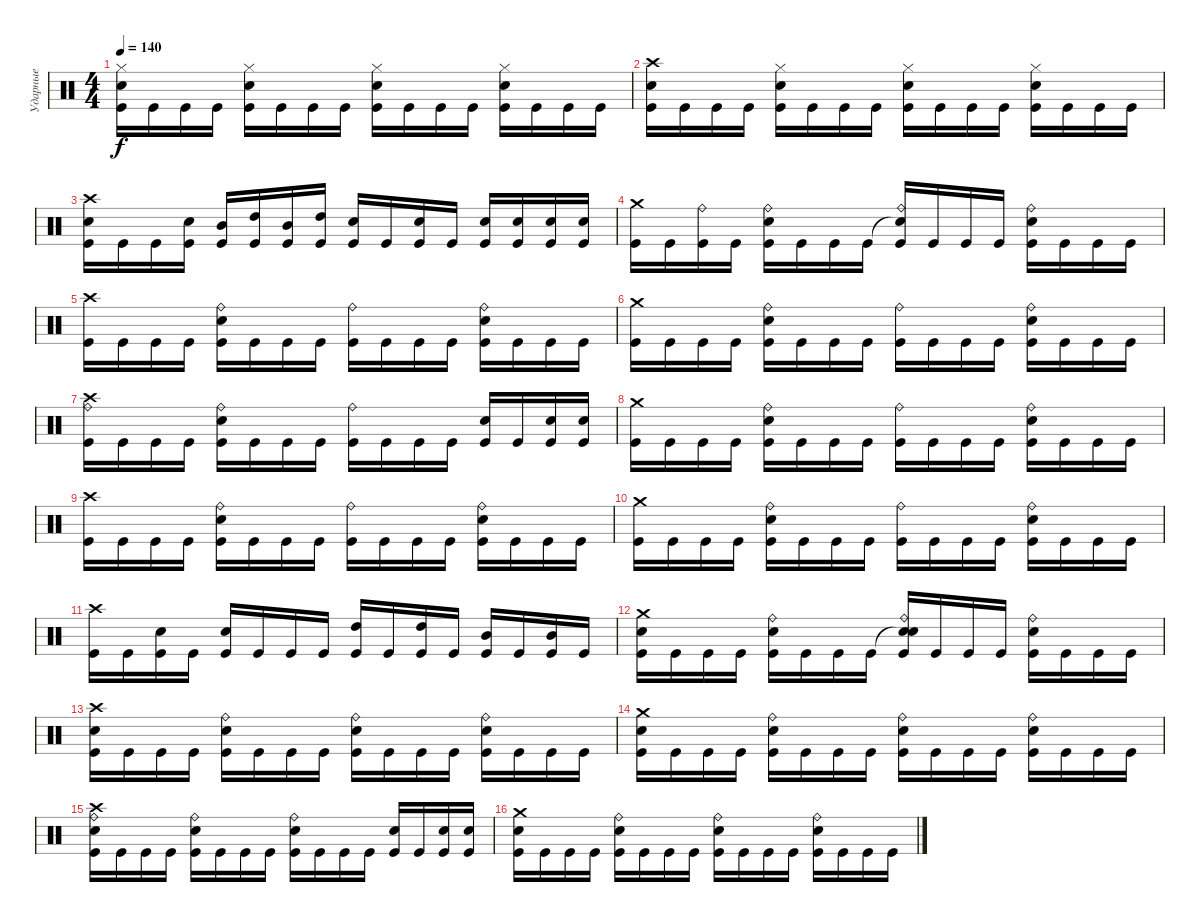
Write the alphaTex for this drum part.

\track ("Ударные" "Ударные") {instrument percussion}
\staff {score}
\articulation defaults
\ts (4 4)
\tempo 140
\clef neutral
\ks c
("Hi-Hat (closed)" "Electric Snare (hit)" "Kick (hit)").16{dy f} "Kick (hit)".16 "Kick (hit)".16 "Kick (hit)".16 ("Hi-Hat (closed)" "Electric Snare (hit)" "Kick (hit)").16 "Kick (hit)".16 "Kick (hit)".16 "Kick (hit)".16 ("Hi-Hat (closed)" "Electric Snare (hit)" "Kick (hit)").16 "Kick (hit)".16 "Kick (hit)".16 "Kick (hit)".16 ("Hi-Hat (closed)" "Electric Snare (hit)" "Kick (hit)").16 "Kick (hit)".16 "Kick (hit)".16 "Kick (hit)".16 |
("Crash high (hit)" "Electric Snare (hit)" "Kick (hit)").16 "Kick (hit)".16 "Kick (hit)".16 "Kick (hit)".16 ("Hi-Hat (closed)" "Electric Snare (hit)" "Kick (hit)").16 "Kick (hit)".16 "Kick (hit)".16 "Kick (hit)".16 ("Hi-Hat (closed)" "Electric Snare (hit)" "Kick (hit)").16 "Kick (hit)".16 "Kick (hit)".16 "Kick (hit)".16 ("Hi-Hat (closed)" "Electric Snare (hit)" "Kick (hit)").16 "Kick (hit)".16 "Kick (hit)".16 "Kick (hit)".16 |
("Crash high (hit)" "Electric Snare (hit)" "Kick (hit)").16 "Kick (hit)".16 "Kick (hit)".16 ("Electric Snare (hit)" "Kick (hit)").16 ("Mid Tom (hit)" "Kick (hit)").16 ("High Tom (hit)" "Kick (hit)").16 ("Mid Tom (hit)" "Kick (hit)").16 ("High Tom (hit)" "Kick (hit)").16 ("Electric Snare (hit)" "Kick (hit)").16 "Kick (hit)".16 ("Electric Snare (hit)" "Kick (hit)").16 "Kick (hit)".16 ("Electric Snare (hit)" "Kick (hit)").16 ("Electric Snare (hit)" "Kick (hit)").16 ("Electric Snare (hit)" "Kick (hit)").16 ("Electric Snare (hit)" "Kick (hit)").16 |
("Crash medium (hit)" "Kick (hit)").16 "Kick (hit)".16 ("Ride (bell)" "Kick (hit)").16 "Kick (hit)".16 ("Ride (bell)" "Electric Snare (hit)" "Kick (hit)").16 "Kick (hit)".16 "Kick (hit)".16 "Kick (hit)".16 ("Snare (hit)"{t} "Ride (bell)" "Kick (hit)").16 "Kick (hit)".16 "Kick (hit)".16 "Kick (hit)".16 ("Ride (bell)" "Electric Snare (hit)" "Kick (hit)").16 "Kick (hit)".16 "Kick (hit)".16 "Kick (hit)".16 |
("Crash high (hit)" "Kick (hit)").16 "Kick (hit)".16 "Kick (hit)".16 "Kick (hit)".16 ("Ride (bell)" "Electric Snare (hit)" "Kick (hit)").16 "Kick (hit)".16 "Kick (hit)".16 "Kick (hit)".16 ("Ride (bell)" "Kick (hit)").16 "Kick (hit)".16 "Kick (hit)".16 "Kick (hit)".16 ("Ride (bell)" "Electric Snare (hit)" "Kick (hit)").16 "Kick (hit)".16 "Kick (hit)".16 "Kick (hit)".16 |
("Crash medium (hit)" "Kick (hit)").16 "Kick (hit)".16 "Kick (hit)".16 "Kick (hit)".16 ("Ride (bell)" "Electric Snare (hit)" "Kick (hit)").16 "Kick (hit)".16 "Kick (hit)".16 "Kick (hit)".16 ("Ride (bell)" "Kick (hit)").16 "Kick (hit)".16 "Kick (hit)".16 "Kick (hit)".16 ("Ride (bell)" "Electric Snare (hit)" "Kick (hit)").16 "Kick (hit)".16 "Kick (hit)".16 "Kick (hit)".16 |
("Crash high (hit)" "Ride (bell)" "Kick (hit)").16 "Kick (hit)".16 "Kick (hit)".16 "Kick (hit)".16 ("Ride (bell)" "Electric Snare (hit)" "Kick (hit)").16 "Kick (hit)".16 "Kick (hit)".16 "Kick (hit)".16 ("Ride (bell)" "Kick (hit)").16 "Kick (hit)".16 "Kick (hit)".16 "Kick (hit)".16 ("Electric Snare (hit)" "Kick (hit)").16 "Kick (hit)".16 ("Electric Snare (hit)" "Kick (hit)").16 ("Electric Snare (hit)" "Kick (hit)").16 |
("Crash medium (hit)" "Kick (hit)").16 "Kick (hit)".16 "Kick (hit)".16 "Kick (hit)".16 ("Ride (bell)" "Electric Snare (hit)" "Kick (hit)").16 "Kick (hit)".16 "Kick (hit)".16 "Kick (hit)".16 ("Ride (bell)" "Kick (hit)").16 "Kick (hit)".16 "Kick (hit)".16 "Kick (hit)".16 ("Ride (bell)" "Electric Snare (hit)" "Kick (hit)").16 "Kick (hit)".16 "Kick (hit)".16 "Kick (hit)".16 |
("Crash high (hit)" "Kick (hit)").16 "Kick (hit)".16 "Kick (hit)".16 "Kick (hit)".16 ("Ride (bell)" "Electric Snare (hit)" "Kick (hit)").16 "Kick (hit)".16 "Kick (hit)".16 "Kick (hit)".16 ("Ride (bell)" "Kick (hit)").16 "Kick (hit)".16 "Kick (hit)".16 "Kick (hit)".16 ("Ride (bell)" "Electric Snare (hit)" "Kick (hit)").16 "Kick (hit)".16 "Kick (hit)".16 "Kick (hit)".16 |
("Crash medium (hit)" "Kick (hit)").16 "Kick (hit)".16 "Kick (hit)".16 "Kick (hit)".16 ("Ride (bell)" "Electric Snare (hit)" "Kick (hit)").16 "Kick (hit)".16 "Kick (hit)".16 "Kick (hit)".16 ("Ride (bell)" "Kick (hit)").16 "Kick (hit)".16 "Kick (hit)".16 "Kick (hit)".16 ("Ride (bell)" "Electric Snare (hit)" "Kick (hit)").16 "Kick (hit)".16 "Kick (hit)".16 "Kick (hit)".16 |
("Crash high (hit)" "Kick (hit)").16 "Kick (hit)".16 ("Electric Snare (hit)" "Kick (hit)").16 "Kick (hit)".16 ("Electric Snare (hit)" "Kick (hit)").16 "Kick (hit)".16 "Kick (hit)".16 "Kick (hit)".16 ("High Tom (hit)" "Kick (hit)").16 "Kick (hit)".16 ("High Tom (hit)" "Kick (hit)").16 "Kick (hit)".16 ("Mid Tom (hit)" "Kick (hit)").16 "Kick (hit)".16 ("Mid Tom (hit)" "Kick (hit)").16 "Kick (hit)".16 |
("Crash medium (hit)" "Electric Snare (hit)" "Kick (hit)").16 "Kick (hit)".16 "Kick (hit)".16 "Kick (hit)".16 ("Ride (bell)" "Electric Snare (hit)" "Kick (hit)").16 "Kick (hit)".16 "Kick (hit)".16 "Kick (hit)".16 ("Snare (hit)"{t} "Ride (bell)" "Electric Snare (hit)" "Kick (hit)").16 "Kick (hit)".16 "Kick (hit)".16 "Kick (hit)".16 ("Ride (bell)" "Electric Snare (hit)" "Kick (hit)").16 "Kick (hit)".16 "Kick (hit)".16 "Kick (hit)".16 |
("Crash high (hit)" "Electric Snare (hit)" "Kick (hit)").16 "Kick (hit)".16 "Kick (hit)".16 "Kick (hit)".16 ("Ride (bell)" "Electric Snare (hit)" "Kick (hit)").16 "Kick (hit)".16 "Kick (hit)".16 "Kick (hit)".16 ("Ride (bell)" "Electric Snare (hit)" "Kick (hit)").16 "Kick (hit)".16 "Kick (hit)".16 "Kick (hit)".16 ("Ride (bell)" "Electric Snare (hit)" "Kick (hit)").16 "Kick (hit)".16 "Kick (hit)".16 "Kick (hit)".16 |
("Crash medium (hit)" "Electric Snare (hit)" "Kick (hit)").16 "Kick (hit)".16 "Kick (hit)".16 "Kick (hit)".16 ("Ride (bell)" "Electric Snare (hit)" "Kick (hit)").16 "Kick (hit)".16 "Kick (hit)".16 "Kick (hit)".16 ("Ride (bell)" "Electric Snare (hit)" "Kick (hit)").16 "Kick (hit)".16 "Kick (hit)".16 "Kick (hit)".16 ("Ride (bell)" "Electric Snare (hit)" "Kick (hit)").16 "Kick (hit)".16 "Kick (hit)".16 "Kick (hit)".16 |
("Crash high (hit)" "Ride (bell)" "Electric Snare (hit)" "Kick (hit)").16 "Kick (hit)".16 "Kick (hit)".16 "Kick (hit)".16 ("Ride (bell)" "Electric Snare (hit)" "Kick (hit)").16 "Kick (hit)".16 "Kick (hit)".16 "Kick (hit)".16 ("Ride (bell)" "Electric Snare (hit)" "Kick (hit)").16 "Kick (hit)".16 "Kick (hit)".16 "Kick (hit)".16 ("Electric Snare (hit)" "Kick (hit)").16 "Kick (hit)".16 ("Electric Snare (hit)" "Kick (hit)").16 ("Electric Snare (hit)" "Kick (hit)").16 |
("Crash medium (hit)" "Electric Snare (hit)" "Kick (hit)").16 "Kick (hit)".16 "Kick (hit)".16 "Kick (hit)".16 ("Ride (bell)" "Electric Snare (hit)" "Kick (hit)").16 "Kick (hit)".16 "Kick (hit)".16 "Kick (hit)".16 ("Ride (bell)" "Electric Snare (hit)" "Kick (hit)").16 "Kick (hit)".16 "Kick (hit)".16 "Kick (hit)".16 ("Ride (bell)" "Electric Snare (hit)" "Kick (hit)").16 "Kick (hit)".16 "Kick (hit)".16 "Kick (hit)".16
